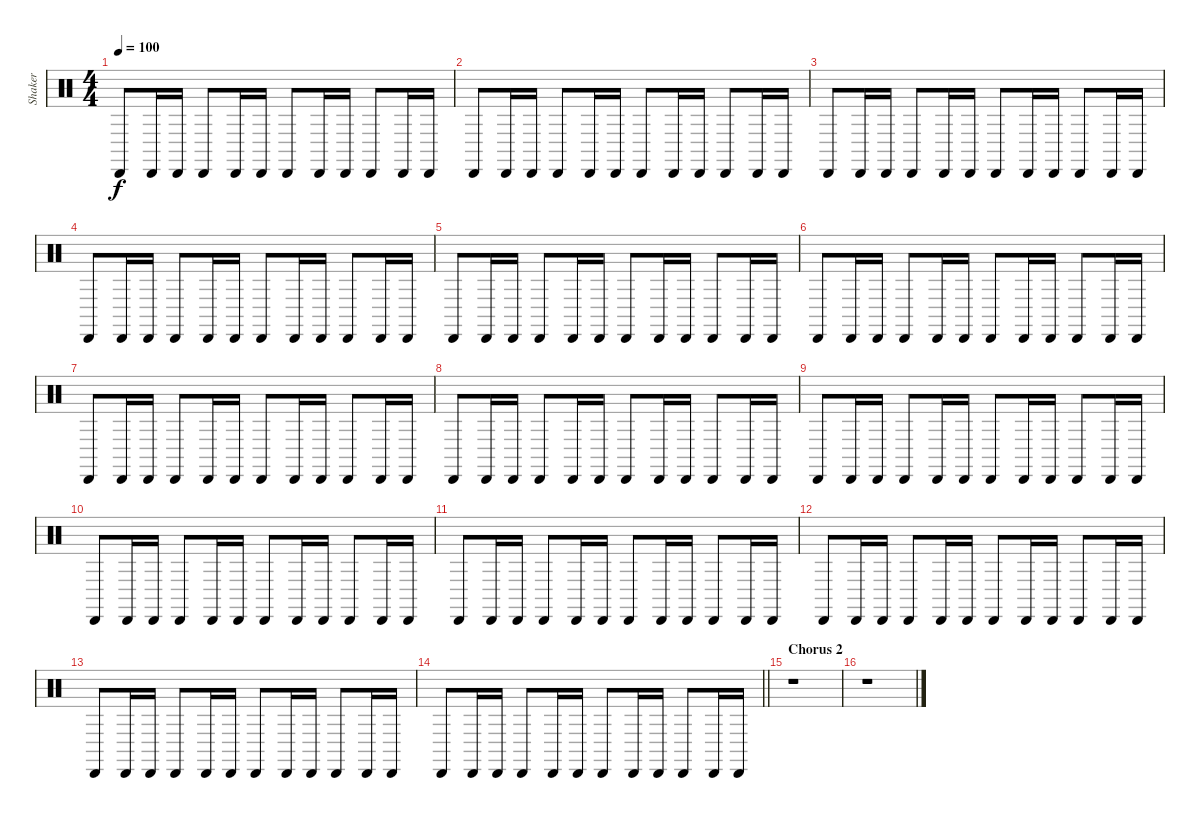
\track ("Shaker" "Shaker") {instrument percussion}
\staff {score}
\articulation defaults
\ts (4 4)
\tempo 100
\clef neutral
\ks c "Cabasa (hit)".8{dy f} "Cabasa (hit)".16 "Cabasa (hit)".16 "Cabasa (hit)".8 "Cabasa (hit)".16 "Cabasa (hit)".16 "Cabasa (hit)".8 "Cabasa (hit)".16 "Cabasa (hit)".16 "Cabasa (hit)".8 "Cabasa (hit)".16 "Cabasa (hit)".16
|
"Cabasa (hit)".8 "Cabasa (hit)".16 "Cabasa (hit)".16 "Cabasa (hit)".8 "Cabasa (hit)".16 "Cabasa (hit)".16 "Cabasa (hit)".8 "Cabasa (hit)".16 "Cabasa (hit)".16 "Cabasa (hit)".8 "Cabasa (hit)".16 "Cabasa (hit)".16 |
"Cabasa (hit)".8 "Cabasa (hit)".16 "Cabasa (hit)".16 "Cabasa (hit)".8 "Cabasa (hit)".16 "Cabasa (hit)".16 "Cabasa (hit)".8 "Cabasa (hit)".16 "Cabasa (hit)".16 "Cabasa (hit)".8 "Cabasa (hit)".16 "Cabasa (hit)".16 |
"Cabasa (hit)".8 "Cabasa (hit)".16 "Cabasa (hit)".16 "Cabasa (hit)".8 "Cabasa (hit)".16 "Cabasa (hit)".16 "Cabasa (hit)".8 "Cabasa (hit)".16 "Cabasa (hit)".16 "Cabasa (hit)".8 "Cabasa (hit)".16 "Cabasa (hit)".16 |
"Cabasa (hit)".8 "Cabasa (hit)".16 "Cabasa (hit)".16 "Cabasa (hit)".8 "Cabasa (hit)".16 "Cabasa (hit)".16 "Cabasa (hit)".8 "Cabasa (hit)".16 "Cabasa (hit)".16 "Cabasa (hit)".8 "Cabasa (hit)".16 "Cabasa (hit)".16 |
"Cabasa (hit)".8 "Cabasa (hit)".16 "Cabasa (hit)".16 "Cabasa (hit)".8 "Cabasa (hit)".16 "Cabasa (hit)".16 "Cabasa (hit)".8 "Cabasa (hit)".16 "Cabasa (hit)".16 "Cabasa (hit)".8 "Cabasa (hit)".16 "Cabasa (hit)".16 |
"Cabasa (hit)".8 "Cabasa (hit)".16 "Cabasa (hit)".16 "Cabasa (hit)".8 "Cabasa (hit)".16 "Cabasa (hit)".16 "Cabasa (hit)".8 "Cabasa (hit)".16 "Cabasa (hit)".16 "Cabasa (hit)".8 "Cabasa (hit)".16 "Cabasa (hit)".16 |
"Cabasa (hit)".8 "Cabasa (hit)".16 "Cabasa (hit)".16 "Cabasa (hit)".8 "Cabasa (hit)".16 "Cabasa (hit)".16 "Cabasa (hit)".8 "Cabasa (hit)".16 "Cabasa (hit)".16 "Cabasa (hit)".8 "Cabasa (hit)".16 "Cabasa (hit)".16 |
"Cabasa (hit)".8 "Cabasa (hit)".16 "Cabasa (hit)".16 "Cabasa (hit)".8 "Cabasa (hit)".16 "Cabasa (hit)".16 "Cabasa (hit)".8 "Cabasa (hit)".16 "Cabasa (hit)".16 "Cabasa (hit)".8 "Cabasa (hit)".16 "Cabasa (hit)".16 |
"Cabasa (hit)".8 "Cabasa (hit)".16 "Cabasa (hit)".16 "Cabasa (hit)".8 "Cabasa (hit)".16 "Cabasa (hit)".16 "Cabasa (hit)".8 "Cabasa (hit)".16 "Cabasa (hit)".16 "Cabasa (hit)".8 "Cabasa (hit)".16 "Cabasa (hit)".16 |
"Cabasa (hit)".8 "Cabasa (hit)".16 "Cabasa (hit)".16 "Cabasa (hit)".8 "Cabasa (hit)".16 "Cabasa (hit)".16 "Cabasa (hit)".8 "Cabasa (hit)".16 "Cabasa (hit)".16 "Cabasa (hit)".8 "Cabasa (hit)".16 "Cabasa (hit)".16 |
"Cabasa (hit)".8 "Cabasa (hit)".16 "Cabasa (hit)".16 "Cabasa (hit)".8 "Cabasa (hit)".16 "Cabasa (hit)".16 "Cabasa (hit)".8 "Cabasa (hit)".16 "Cabasa (hit)".16 "Cabasa (hit)".8 "Cabasa (hit)".16 "Cabasa (hit)".16 |
"Cabasa (hit)".8 "Cabasa (hit)".16 "Cabasa (hit)".16 "Cabasa (hit)".8 "Cabasa (hit)".16 "Cabasa (hit)".16 "Cabasa (hit)".8 "Cabasa (hit)".16 "Cabasa (hit)".16 "Cabasa (hit)".8 "Cabasa (hit)".16 "Cabasa (hit)".16 |
\barLineRight lightlight "Cabasa (hit)".8 "Cabasa (hit)".16 "Cabasa (hit)".16 "Cabasa (hit)".8 "Cabasa (hit)".16 "Cabasa (hit)".16 "Cabasa (hit)".8 "Cabasa (hit)".16 "Cabasa (hit)".16 "Cabasa (hit)".8 "Cabasa (hit)".16 "Cabasa (hit)".16
|
\section ("" "Chorus 2")
r.1 |
r.1
